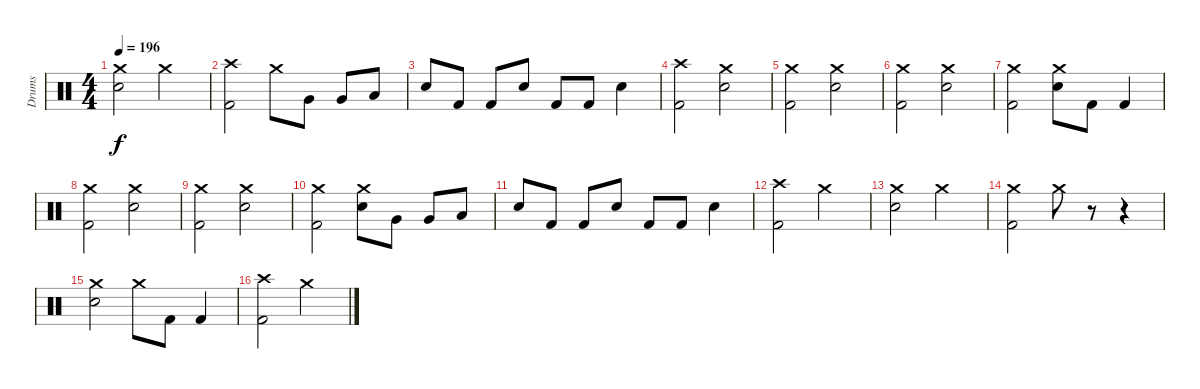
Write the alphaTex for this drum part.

\track ("Drums" "Drums") {instrument percussion}
\staff
\articulation defaults
\ts (4 4)
\tempo 196
\clef neutral
\ks c
("Crash medium (hit)" "Electric Snare (hit)").2{dy f} "Crash medium (hit)".2 |
("Crash high (hit)" "Kick (hit) 2").2 "Crash medium (hit)".8 "Very Low Tom (hit)".8 "Very Low Tom (hit)".8 "Low Floor Tom (hit)".8 |
"Electric Snare (hit)".8 "Kick (hit) 2".8 "Kick (hit) 2".8 "Electric Snare (hit)".8 "Kick (hit) 2".8 "Kick (hit) 2".8 "Electric Snare (hit)".4 |
("Crash high (hit)" "Kick (hit) 2").2 ("Crash medium (hit)" "Electric Snare (hit)").2 |
("Crash medium (hit)" "Kick (hit) 2").2 ("Crash medium (hit)" "Electric Snare (hit)").2 |
("Crash medium (hit)" "Kick (hit) 2").2 ("Crash medium (hit)" "Electric Snare (hit)").2 |
("Crash medium (hit)" "Kick (hit) 2").2 ("Crash medium (hit)" "Electric Snare (hit)").8 "Kick (hit) 2".8 "Kick (hit) 2".4 |
("Crash medium (hit)" "Kick (hit) 2").2 ("Crash medium (hit)" "Electric Snare (hit)").2 |
("Crash medium (hit)" "Kick (hit) 2").2 ("Crash medium (hit)" "Electric Snare (hit)").2 |
("Crash medium (hit)" "Kick (hit) 2").2 ("Crash medium (hit)" "Electric Snare (hit)").8 "Very Low Tom (hit)".8 "Very Low Tom (hit)".8 "Low Floor Tom (hit)".8 |
"Electric Snare (hit)".8 "Kick (hit) 2".8 "Kick (hit) 2".8 "Electric Snare (hit)".8 "Kick (hit) 2".8 "Kick (hit) 2".8 "Electric Snare (hit)".4 |
("Crash high (hit)" "Kick (hit) 2").2 "Crash medium (hit)".2 |
("Crash medium (hit)" "Electric Snare (hit)").2 "Crash medium (hit)".2 |
("Crash medium (hit)" "Kick (hit) 2").2 "Crash medium (hit)".8 r.8 r.4 |
("Crash medium (hit)" "Electric Snare (hit)").2 "Crash medium (hit)".8 "Kick (hit) 2".8 "Kick (hit) 2".4 |
("Crash high (hit)" "Kick (hit) 2").2 "Crash medium (hit)".2
